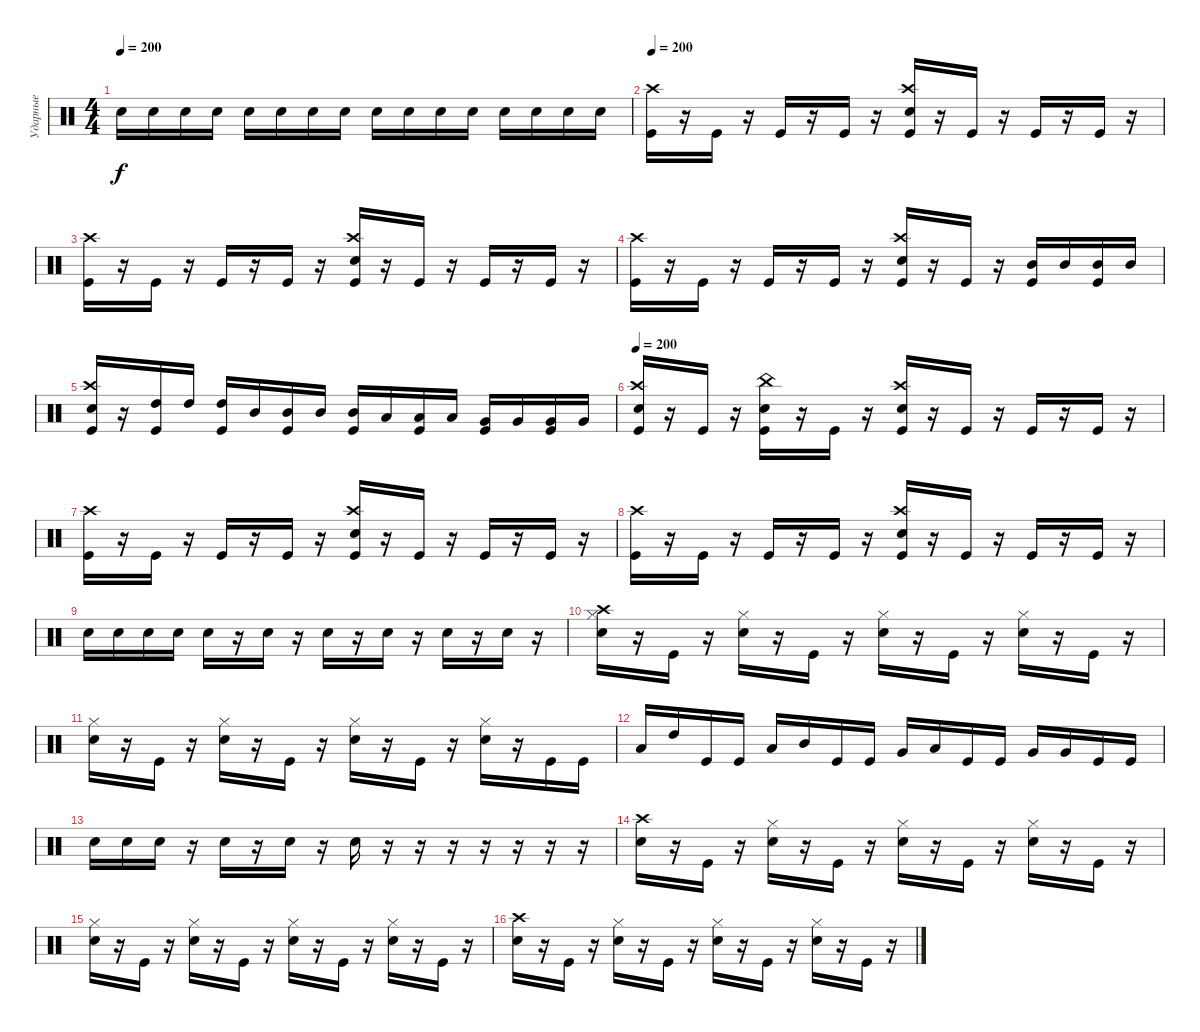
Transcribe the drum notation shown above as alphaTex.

\track ("Ударные" "Ударные") {instrument percussion}
\staff {score}
\articulation defaults
\ts (4 4)
\tempo 200
\clef neutral
\ks c "Electric Snare (hit)".16{dy f} "Electric Snare (hit)".16 "Electric Snare (hit)".16 "Electric Snare (hit)".16 "Electric Snare (hit)".16 "Electric Snare (hit)".16 "Electric Snare (hit)".16 "Electric Snare (hit)".16 "Electric Snare (hit)".16 "Electric Snare (hit)".16 "Electric Snare (hit)".16 "Electric Snare (hit)".16 "Electric Snare (hit)".16 "Electric Snare (hit)".16 "Electric Snare (hit)".16 "Electric Snare (hit)".16
|
\tempo 200
("Crash high (hit)" "Kick (hit)").16 r.16 "Kick (hit)".16 r.16 "Kick (hit)".16 r.16 "Kick (hit)".16 r.16 ("Crash high (hit)" "Electric Snare (hit)" "Kick (hit)").16 r.16 "Kick (hit)".16 r.16 "Kick (hit)".16 r.16 "Kick (hit)".16 r.16 |
("Crash high (hit)" "Kick (hit)").16 r.16 "Kick (hit)".16 r.16 "Kick (hit)".16 r.16 "Kick (hit)".16 r.16 ("Crash high (hit)" "Electric Snare (hit)" "Kick (hit)").16 r.16 "Kick (hit)".16 r.16 "Kick (hit)".16 r.16 "Kick (hit)".16 r.16 |
("Crash high (hit)" "Kick (hit)").16 r.16 "Kick (hit)".16 r.16 "Kick (hit)".16 r.16 "Kick (hit)".16 r.16 ("Crash high (hit)" "Electric Snare (hit)" "Kick (hit)").16 r.16 "Kick (hit)".16 r.16 ("Mid Tom (hit)" "Kick (hit)").16 "Mid Tom (hit)".16 ("Mid Tom (hit)" "Kick (hit)").16 "Mid Tom (hit)".16 |
("Crash high (hit)" "Electric Snare (hit)" "Kick (hit)").16 r.16 ("High Tom (hit)" "Kick (hit)").16 "High Tom (hit)".16 ("High Tom (hit)" "Kick (hit)").16 "Mid Tom (hit)".16 ("Mid Tom (hit)" "Kick (hit)").16 "Mid Tom (hit)".16 ("Mid Tom (hit)" "Kick (hit)").16 "Low Tom (hit)".16 ("Low Tom (hit)" "Kick (hit)").16 "Low Tom (hit)".16 ("Very Low Tom (hit)" "Kick (hit)").16 "Very Low Tom (hit)".16 ("Very Low Tom (hit)" "Kick (hit)").16 "Very Low Tom (hit)".16 |
\tempo 200
("Crash high (hit)" "Electric Snare (hit)" "Kick (hit)").16 r.16 "Kick (hit)".16 r.16 ("China (hit)" "Electric Snare (hit)" "Kick (hit)").16 r.16 "Kick (hit)".16 r.16 ("Crash high (hit)" "Electric Snare (hit)" "Kick (hit)").16 r.16 "Kick (hit)".16 r.16 "Kick (hit)".16 r.16 "Kick (hit)".16 r.16 |
("Crash high (hit)" "Kick (hit)").16 r.16 "Kick (hit)".16 r.16 "Kick (hit)".16 r.16 "Kick (hit)".16 r.16 ("Crash high (hit)" "Electric Snare (hit)" "Kick (hit)").16 r.16 "Kick (hit)".16 r.16 "Kick (hit)".16 r.16 "Kick (hit)".16 r.16 |
("Crash high (hit)" "Kick (hit)").16 r.16 "Kick (hit)".16 r.16 "Kick (hit)".16 r.16 "Kick (hit)".16 r.16 ("Crash high (hit)" "Electric Snare (hit)" "Kick (hit)").16 r.16 "Kick (hit)".16 r.16 "Kick (hit)".16 r.16 "Kick (hit)".16 r.16 |
"Electric Snare (hit)".16 "Electric Snare (hit)".16 "Electric Snare (hit)".16 "Electric Snare (hit)".16 "Electric Snare (hit)".16 r.16 "Electric Snare (hit)".16 r.16 "Electric Snare (hit)".16 r.16 "Electric Snare (hit)".16 r.16 "Electric Snare (hit)".16 r.16 "Electric Snare (hit)".16 r.16 |
("Hi-Hat (closed)" "Electric Snare (hit)" "Crash high (hit)").16 r.16 "Kick (hit)".16 r.16 ("Hi-Hat (closed)" "Electric Snare (hit)").16 r.16 "Kick (hit)".16 r.16 ("Hi-Hat (closed)" "Electric Snare (hit)").16 r.16 "Kick (hit)".16 r.16 ("Hi-Hat (closed)" "Electric Snare (hit)").16 r.16 "Kick (hit)".16 r.16 |
("Hi-Hat (closed)" "Electric Snare (hit)").16 r.16 "Kick (hit)".16 r.16 ("Hi-Hat (closed)" "Electric Snare (hit)").16 r.16 "Kick (hit)".16 r.16 ("Hi-Hat (closed)" "Electric Snare (hit)").16 r.16 "Kick (hit)".16 r.16 ("Hi-Hat (closed)" "Electric Snare (hit)").16 r.16 "Kick (hit)".16 "Kick (hit)".16 |
"Low Tom (hit)".16 "High Tom (hit)".16 "Kick (hit)".16 "Kick (hit)".16 "Low Tom (hit)".16 "Mid Tom (hit)".16 "Kick (hit)".16 "Kick (hit)".16 "Very Low Tom (hit)".16 "Low Tom (hit)".16 "Kick (hit)".16 "Kick (hit)".16 "Very Low Tom (hit)".16 "Very Low Tom (hit)".16 "Kick (hit)".16 "Kick (hit)".16 |
"Electric Snare (hit)".16 "Electric Snare (hit)".16 "Electric Snare (hit)".16 r.16 "Electric Snare (hit)".16 r.16 "Electric Snare (hit)".16 r.16 "Electric Snare (hit)".16 r.16 r.16 r.16 r.16 r.16 r.16 r.16 |
("Crash high (hit)" "Electric Snare (hit)").16 r.16 "Kick (hit)".16 r.16 ("Hi-Hat (closed)" "Electric Snare (hit)").16 r.16 "Kick (hit)".16 r.16 ("Hi-Hat (closed)" "Electric Snare (hit)").16 r.16 "Kick (hit)".16 r.16 ("Hi-Hat (closed)" "Electric Snare (hit)").16 r.16 "Kick (hit)".16 r.16 |
("Hi-Hat (closed)" "Electric Snare (hit)").16 r.16 "Kick (hit)".16 r.16 ("Hi-Hat (closed)" "Electric Snare (hit)").16 r.16 "Kick (hit)".16 r.16 ("Hi-Hat (closed)" "Electric Snare (hit)").16 r.16 "Kick (hit)".16 r.16 ("Hi-Hat (closed)" "Electric Snare (hit)").16 r.16 "Kick (hit)".16 r.16 |
("Crash high (hit)" "Electric Snare (hit)").16 r.16 "Kick (hit)".16 r.16 ("Hi-Hat (closed)" "Electric Snare (hit)").16 r.16 "Kick (hit)".16 r.16 ("Hi-Hat (closed)" "Electric Snare (hit)").16 r.16 "Kick (hit)".16 r.16 ("Hi-Hat (closed)" "Electric Snare (hit)").16 r.16 "Kick (hit)".16 r.16
